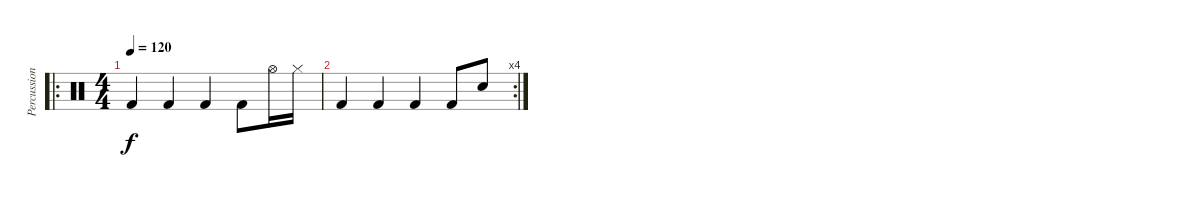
\track ("Percussions" "Percussion") {instrument percussion}
\staff {score}
\articulation defaults
\ro
\ts (4 4)
\tempo 120
\clef neutral
\ks c "Kick (hit) 2".4{dy f} "Kick (hit) 2".4 "Kick (hit) 2".4 "Kick (hit) 2".8 "Hi-Hat (open)".16 "Hi-Hat (closed)".16
|
\rc 4 "Kick (hit) 2".4 "Kick (hit) 2".4 "Kick (hit) 2".4 "Kick (hit) 2".8 "Electric Snare (hit)".8
